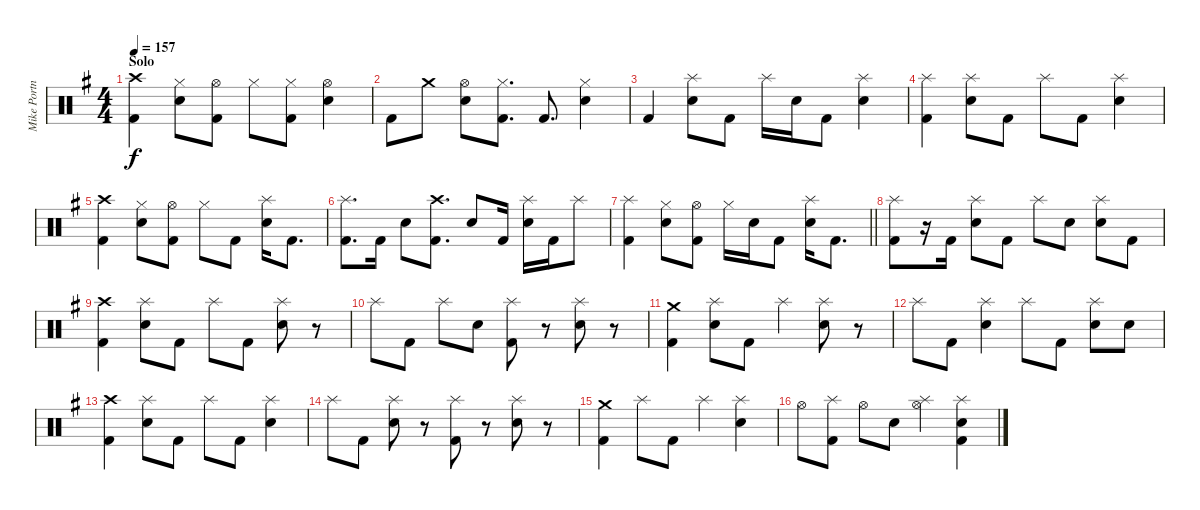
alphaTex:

\track ("Mike Portnoy" "Mike Portn") {instrument percussion}
\staff {score}
\articulation defaults
\ts (4 4)
\section ("" "Solo")
\tempo 157
\clef neutral
\ks g
("Kick (hit) 2" "Crash high (hit)").4{dy f} ("Snare (hit) 2" "Hi-Hat (closed)").8 ("Kick (hit) 2" "Hi-Hat (open)").8 "Hi-Hat (closed)".8 ("Kick (hit) 2" "Hi-Hat (closed)").8 ("Snare (hit) 2" "Hi-Hat (open)").4 |
"Kick (hit) 2".8 "Crash medium (hit)".8 ("Snare (hit) 2" "Hi-Hat (open)").8 ("Kick (hit) 2" "Hi-Hat (closed)").8{d} "Kick (hit) 2".8{d} ("Snare (hit) 2" "Hi-Hat (closed)").4 |
"Kick (hit) 2".4 ("Snare (hit) 2" "Splash (hit)").8 "Kick (hit) 2".8 "Splash (hit)".16 "Snare (hit) 2".16 "Kick (hit) 2".8 ("Snare (hit) 2" "Splash (hit)").4 |
("Kick (hit) 2" "Splash (hit)").4 ("Snare (hit) 2" "Splash (hit)").8 "Kick (hit) 2".8 "Splash (hit)".8 "Kick (hit) 2".8 ("Snare (hit) 2" "Splash (hit)").4 |
("Kick (hit) 2" "Crash high (hit)").4 ("Snare (hit) 2" "Hi-Hat (closed)").8 ("Kick (hit) 2" "Hi-Hat (open)").8 "Hi-Hat (closed)".8 "Kick (hit) 2".8 ("Snare (hit) 2" "Splash (hit)").16 "Kick (hit) 2".8{d} |
("Kick (hit) 2" "Splash (hit)").8{d} "Kick (hit) 2".16 "Snare (hit) 2".8 ("Kick (hit) 2" "Crash high (hit)").8{d} "Snare (hit) 2".8 "Kick (hit) 2".16 ("Snare (hit) 2" "Splash (hit)").16 "Kick (hit) 2".16 "Splash (hit)".8 |
\barLineRight lightlight
("Kick (hit) 2" "Splash (hit)").4 ("Snare (hit) 2" "Hi-Hat (closed)").8 ("Kick (hit) 2" "Hi-Hat (open)").8 "Hi-Hat (closed)".16 "Snare (hit) 2".16 "Kick (hit) 2".8 ("Snare (hit) 2" "Splash (hit)").16 "Kick (hit) 2".8{d} |
("Kick (hit) 2" "Splash (hit)").8 r.16 "Kick (hit) 2".16 ("Snare (hit) 2" "Splash (hit)").8 "Kick (hit) 2".8 "Splash (hit)".8 "Snare (hit) 2".8 ("Snare (hit) 2" "Splash (hit)").8 "Kick (hit) 2".8 |
("Kick (hit) 2" "Crash high (hit)").4 ("Snare (hit) 2" "Splash (hit)").8 "Kick (hit) 2".8 "Splash (hit)".8 "Kick (hit) 2".8 ("Snare (hit) 2" "Splash (hit)").8 r.8 |
"Splash (hit)".8 "Kick (hit) 2".8 "Splash (hit)".8 "Snare (hit) 2".8 ("Kick (hit) 2" "Splash (hit)").8 r.8 ("Snare (hit) 2" "Splash (hit)").8 r.8 |
("Kick (hit) 2" "Crash medium (hit)").4 ("Snare (hit) 2" "Splash (hit)").8 "Kick (hit) 2".8 "Splash (hit)".4 ("Snare (hit) 2" "Splash (hit)").8 r.8 |
"Splash (hit)".8 "Kick (hit) 2".8 ("Snare (hit) 2" "Splash (hit)").4 "Splash (hit)".8 "Kick (hit) 2".8 ("Snare (hit) 2" "Splash (hit)").8 "Snare (hit) 2".8 |
("Kick (hit) 2" "Crash high (hit)").4 ("Snare (hit) 2" "Splash (hit)").8 "Kick (hit) 2".8 "Splash (hit)".8 "Kick (hit) 2".8 ("Snare (hit) 2" "Splash (hit)").4 |
"Splash (hit)".8 "Kick (hit) 2".8 ("Snare (hit) 2" "Splash (hit)").8 r.8 ("Kick (hit) 2" "Splash (hit)").8 r.8 ("Snare (hit) 2" "Splash (hit)").8 r.8 |
("Kick (hit) 2" "Crash medium (hit)").4 "Splash (hit)".8 "Kick (hit) 2".8 "Splash (hit)".4 ("Snare (hit) 2" "Splash (hit)").4 |
"Hi-Hat (open)".8 ("Kick (hit) 2" "Splash (hit)").8 "Hi-Hat (open)".8 "Snare (hit) 2".8 ("Hi-Hat (open)" "Splash (hit)").4 ("Kick (hit) 2" "Snare (hit) 2" "Splash (hit)").4
